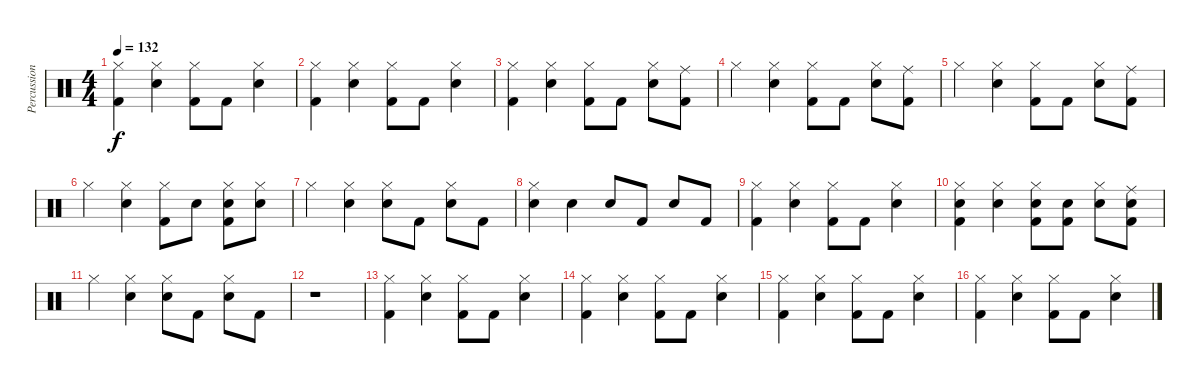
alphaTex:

\track ("Percussions" "Percussion") {instrument percussion}
\staff {score}
\articulation defaults
\ts (4 4)
\tempo 132
\clef neutral
\ks c
("Hi-Hat (closed)" "Kick (hit) 2").4{dy f} ("Hi-Hat (closed)" "Snare (hit) 2").4 ("Hi-Hat (closed)" "Kick (hit) 2").8 "Kick (hit) 2".8 ("Hi-Hat (closed)" "Snare (hit) 2").4 |
("Hi-Hat (closed)" "Kick (hit) 2").4 ("Hi-Hat (closed)" "Snare (hit) 2").4 ("Hi-Hat (closed)" "Kick (hit) 2").8 "Kick (hit) 2".8 ("Hi-Hat (closed)" "Snare (hit) 2").4 |
("Hi-Hat (closed)" "Kick (hit) 2").4 ("Hi-Hat (closed)" "Snare (hit) 2").4 ("Hi-Hat (closed)" "Kick (hit) 2").8 "Kick (hit) 2".8 ("Hi-Hat (closed)" "Snare (hit) 2").8 ("Ride (middle)" "Kick (hit) 2").8 |
"Hi-Hat (closed)".4 ("Hi-Hat (closed)" "Snare (hit) 2").4 ("Hi-Hat (closed)" "Kick (hit) 2").8 "Kick (hit) 2".8 ("Hi-Hat (closed)" "Snare (hit) 2").8 ("Ride (middle)" "Kick (hit) 2").8 |
"Hi-Hat (closed)".4 ("Hi-Hat (closed)" "Snare (hit) 2").4 ("Hi-Hat (closed)" "Kick (hit) 2").8 "Kick (hit) 2".8 ("Hi-Hat (closed)" "Snare (hit) 2").8 ("Ride (middle)" "Kick (hit) 2").8 |
"Hi-Hat (closed)".4 ("Hi-Hat (closed)" "Snare (hit) 2").4 ("Hi-Hat (closed)" "Kick (hit) 2").8 "Snare (hit) 2".8 ("Hi-Hat (closed)" "Snare (hit) 2" "Kick (hit) 2").8 ("Hi-Hat (closed)" "Snare (hit) 2").8 |
"Hi-Hat (closed)".4 ("Hi-Hat (closed)" "Snare (hit) 2").4 ("Hi-Hat (closed)" "Snare (hit) 2").8 "Kick (hit) 2".8 ("Hi-Hat (closed)" "Snare (hit) 2").8 "Kick (hit) 2".8 |
("Hi-Hat (closed)" "Snare (hit) 2").4 "Snare (hit) 2".4 "Snare (hit) 2".8 "Kick (hit) 2".8 "Snare (hit) 2".8 "Kick (hit) 2".8 |
("Hi-Hat (closed)" "Kick (hit) 2").4 ("Hi-Hat (closed)" "Snare (hit) 2").4 ("Hi-Hat (closed)" "Kick (hit) 2").8 "Kick (hit) 2".8 ("Hi-Hat (closed)" "Snare (hit) 2").4 |
("Hi-Hat (closed)" "Snare (hit) 2" "Kick (hit) 2").4 ("Hi-Hat (closed)" "Snare (hit) 2").4 ("Hi-Hat (closed)" "Snare (hit) 2" "Kick (hit) 2").8 ("Snare (hit) 2" "Kick (hit) 2").8 ("Hi-Hat (closed)" "Snare (hit) 2").8 ("Ride (middle)" "Snare (hit) 2" "Kick (hit) 2").8 |
"Hi-Hat (closed)".4 ("Hi-Hat (closed)" "Snare (hit) 2").4 ("Hi-Hat (closed)" "Snare (hit) 2").8 "Kick (hit) 2".8 ("Hi-Hat (closed)" "Snare (hit) 2").8 "Kick (hit) 2".8 |
r.1 |
("Hi-Hat (closed)" "Kick (hit) 2").4 ("Hi-Hat (closed)" "Snare (hit) 2").4 ("Hi-Hat (closed)" "Kick (hit) 2").8 "Kick (hit) 2".8 ("Hi-Hat (closed)" "Snare (hit) 2").4 |
("Hi-Hat (closed)" "Kick (hit) 2").4 ("Hi-Hat (closed)" "Snare (hit) 2").4 ("Hi-Hat (closed)" "Kick (hit) 2").8 "Kick (hit) 2".8 ("Hi-Hat (closed)" "Snare (hit) 2").4 |
("Hi-Hat (closed)" "Kick (hit) 2").4 ("Hi-Hat (closed)" "Snare (hit) 2").4 ("Hi-Hat (closed)" "Kick (hit) 2").8 "Kick (hit) 2".8 ("Hi-Hat (closed)" "Snare (hit) 2").4 |
("Hi-Hat (closed)" "Kick (hit) 2").4 ("Hi-Hat (closed)" "Snare (hit) 2").4 ("Hi-Hat (closed)" "Kick (hit) 2").8 "Kick (hit) 2".8 ("Hi-Hat (closed)" "Snare (hit) 2").4
